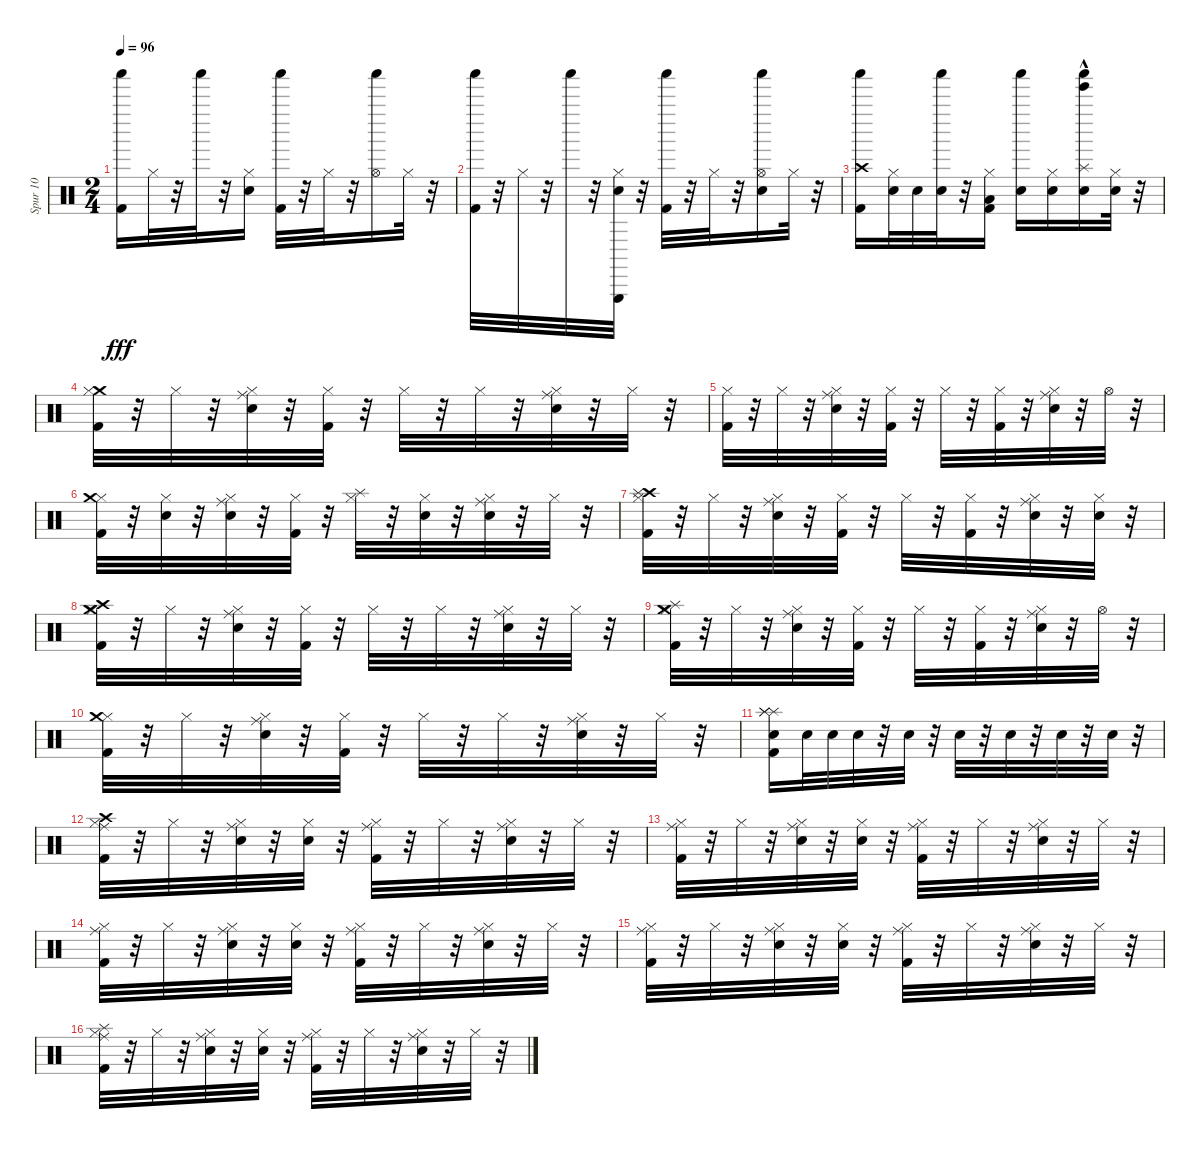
\track ("Spur 10" "Spur 10") {instrument percussion}
\staff {score}
\articulation defaults
\ts (2 4)
\tempo 96
\clef neutral
\ks c
("Shaker (hit)" "Kick (hit) 2").16{dy fff} "Hi-Hat (closed)".32 r.32 "Shaker (hit)".32 r.32 ("Hi-Hat (closed)" "Electric Snare (hit)").16 ("Shaker (hit)" "Kick (hit) 2").32 r.32 "Hi-Hat (closed)".32 r.32 ("Shaker (hit)" "Hi-Hat (open)").16 "Hi-Hat (closed)".32 r.32 |
("Shaker (hit)" "Kick (hit) 2").32 r.32 "Hi-Hat (closed)".32 r.32 "Shaker (hit)".32 r.32 ("Hi-Hat (closed)" "Triangle (hit)" "Electric Snare (hit)").32 r.32 ("Shaker (hit)" "Kick (hit) 2").32 r.32 "Hi-Hat (closed)".32 r.32 ("Shaker (hit)" "Electric Snare (hit)" "Hi-Hat (open)").16 "Hi-Hat (closed)".32 r.32 |
("Crash high (hit)" "Shaker (hit)" "Kick (hit) 2").16 ("Hi-Hat (closed)" "Electric Snare (hit)").32 "Electric Snare (hit)".32 ("Shaker (hit)" "Electric Snare (hit)").32 r.32 ("Hi-Hat (closed)" "Low Tom (hit)" "Kick (hit) 2").16 ("Shaker (hit)" "Electric Snare (hit)").16 ("Hi-Hat (closed)" "Electric Snare (hit)").16 ("Tinkle Bell (hit)"{hac} "Shaker (hit)" "Splash (hit)" "Electric Snare (hit)").16 ("Hi-Hat (closed)" "Electric Snare (hit)").32 r.32 |
("Crash medium (hit)" "Hi-Hat (closed)" "Kick (hit) 2").32 r.32 "Hi-Hat (closed)".32 r.32 ("Hi-Hat (closed)" "Electric Snare (hit)" "Ride (middle)").32 r.32 ("Hi-Hat (closed)" "Kick (hit) 2").32 r.32 "Hi-Hat (closed)".32 r.32 "Hi-Hat (closed)".32 r.32 ("Hi-Hat (closed)" "Electric Snare (hit)" "Ride (middle)").32 r.32 "Hi-Hat (closed)".32 r.32 |
("Hi-Hat (closed)" "Kick (hit) 2").32 r.32 "Hi-Hat (closed)".32 r.32 ("Hi-Hat (closed)" "Electric Snare (hit)" "Ride (middle)").32 r.32 ("Hi-Hat (closed)" "Kick (hit) 2").32 r.32 "Hi-Hat (closed)".32 r.32 ("Hi-Hat (closed)" "Kick (hit) 2").32 r.32 ("Hi-Hat (closed)" "Electric Snare (hit)" "Ride (middle)").32 r.32 "Hi-Hat (open)".32 r.32 |
("Hi-Hat (closed)" "Crash medium (hit)" "Kick (hit) 2").32 r.32 ("Hi-Hat (closed)" "Electric Snare (hit)").32 r.32 ("Hi-Hat (closed)" "Ride (middle)" "Electric Snare (hit)").32 r.32 ("Hi-Hat (closed)" "Kick (hit) 2").32 r.32 ("Hi-Hat (closed)" "Splash (hit)").32 r.32 ("Hi-Hat (closed)" "Electric Snare (hit)").32 r.32 ("Hi-Hat (closed)" "Ride (middle)" "Electric Snare (hit)").32 r.32 "Hi-Hat (closed)".32 r.32 |
("Hi-Hat (closed)" "Crash high (hit)" "Splash (hit)" "Kick (hit) 2").32 r.32 "Hi-Hat (closed)".32 r.32 ("Hi-Hat (closed)" "Ride (middle)" "Electric Snare (hit)").32 r.32 ("Hi-Hat (closed)" "Kick (hit) 2").32 r.32 "Hi-Hat (closed)".32 r.32 ("Hi-Hat (closed)" "Kick (hit) 2").32 r.32 ("Hi-Hat (closed)" "Ride (middle)" "Electric Snare (hit)").32 r.32 ("Hi-Hat (closed)" "Electric Snare (hit)").32 r.32 |
("Crash medium (hit)" "Crash high (hit)" "Hi-Hat (closed)" "Kick (hit) 2").32 r.32 "Hi-Hat (closed)".32 r.32 ("Hi-Hat (closed)" "Electric Snare (hit)" "Ride (middle)").32 r.32 ("Hi-Hat (closed)" "Kick (hit) 2").32 r.32 "Hi-Hat (closed)".32 r.32 "Hi-Hat (closed)".32 r.32 ("Hi-Hat (closed)" "Electric Snare (hit)" "Ride (middle)").32 r.32 "Hi-Hat (closed)".32 r.32 |
("Hi-Hat (closed)" "Splash (hit)" "Crash medium (hit)" "Kick (hit) 2").32 r.32 "Hi-Hat (closed)".32 r.32 ("Hi-Hat (closed)" "Electric Snare (hit)" "Ride (middle)").32 r.32 ("Hi-Hat (closed)" "Kick (hit) 2").32 r.32 "Hi-Hat (closed)".32 r.32 ("Hi-Hat (closed)" "Kick (hit) 2").32 r.32 ("Hi-Hat (closed)" "Electric Snare (hit)" "Ride (middle)").32 r.32 "Hi-Hat (open)".32 r.32 |
("Hi-Hat (closed)" "Crash medium (hit)" "Kick (hit) 2").32 r.32 "Hi-Hat (closed)".32 r.32 ("Hi-Hat (closed)" "Ride (middle)" "Electric Snare (hit)").32 r.32 ("Hi-Hat (closed)" "Kick (hit) 2").32 r.32 "Hi-Hat (closed)".32 r.32 "Hi-Hat (closed)".32 r.32 ("Hi-Hat (closed)" "Ride (middle)" "Electric Snare (hit)").32 r.32 "Hi-Hat (closed)".32 r.32 |
("Splash (hit)" "Splash (hit)" "Kick (hit) 2" "Electric Snare (hit)" "Splash (hit)").16 "Electric Snare (hit)".32 "Electric Snare (hit)".32 "Electric Snare (hit)".32 r.32 "Electric Snare (hit)".32 r.32 "Electric Snare (hit)".32 r.32 "Electric Snare (hit)".32 r.32 "Electric Snare (hit)".32 r.32 "Electric Snare (hit)".32 r.32 |
("Hi-Hat (closed)" "Crash high (hit)" "Kick (hit) 2" "Ride (middle)").32 r.32 "Hi-Hat (closed)".32 r.32 ("Hi-Hat (closed)" "Ride (middle)" "Electric Snare (hit)").32 r.32 ("Hi-Hat (closed)" "Electric Snare (hit)").32 r.32 ("Hi-Hat (closed)" "Kick (hit) 2" "Ride (middle)").32 r.32 "Hi-Hat (closed)".32 r.32 ("Hi-Hat (closed)" "Ride (middle)" "Electric Snare (hit)").32 r.32 "Hi-Hat (closed)".32 r.32 |
("Hi-Hat (closed)" "Kick (hit) 2" "Ride (middle)").32 r.32 "Hi-Hat (closed)".32 r.32 ("Hi-Hat (closed)" "Ride (middle)" "Electric Snare (hit)").32 r.32 ("Hi-Hat (closed)" "Electric Snare (hit)").32 r.32 ("Hi-Hat (closed)" "Kick (hit) 2" "Ride (middle)").32 r.32 "Hi-Hat (closed)".32 r.32 ("Hi-Hat (closed)" "Ride (middle)" "Electric Snare (hit)").32 r.32 "Hi-Hat (closed)".32 r.32 |
("Hi-Hat (closed)" "Ride (middle)" "Kick (hit) 2").32 r.32 "Hi-Hat (closed)".32 r.32 ("Hi-Hat (closed)" "Ride (middle)" "Electric Snare (hit)").32 r.32 ("Hi-Hat (closed)" "Electric Snare (hit)").32 r.32 ("Hi-Hat (closed)" "Ride (middle)" "Kick (hit) 2").32 r.32 "Hi-Hat (closed)".32 r.32 ("Hi-Hat (closed)" "Ride (middle)" "Electric Snare (hit)").32 r.32 "Hi-Hat (closed)".32 r.32 |
("Hi-Hat (closed)" "Ride (middle)" "Kick (hit) 2").32 r.32 "Hi-Hat (closed)".32 r.32 ("Hi-Hat (closed)" "Ride (middle)" "Electric Snare (hit)").32 r.32 ("Hi-Hat (closed)" "Electric Snare (hit)").32 r.32 ("Hi-Hat (closed)" "Ride (middle)" "Kick (hit) 2").32 r.32 "Hi-Hat (closed)".32 r.32 ("Hi-Hat (closed)" "Ride (middle)" "Electric Snare (hit)").32 r.32 "Hi-Hat (closed)".32 r.32 |
("Hi-Hat (closed)" "Splash (hit)" "Kick (hit) 2" "Ride (middle)").32 r.32 "Hi-Hat (closed)".32 r.32 ("Hi-Hat (closed)" "Ride (middle)" "Electric Snare (hit)").32 r.32 ("Hi-Hat (closed)" "Electric Snare (hit)").32 r.32 ("Hi-Hat (closed)" "Kick (hit) 2" "Ride (middle)").32 r.32 "Hi-Hat (closed)".32 r.32 ("Hi-Hat (closed)" "Ride (middle)" "Electric Snare (hit)").32 r.32 "Hi-Hat (closed)".32 r.32
